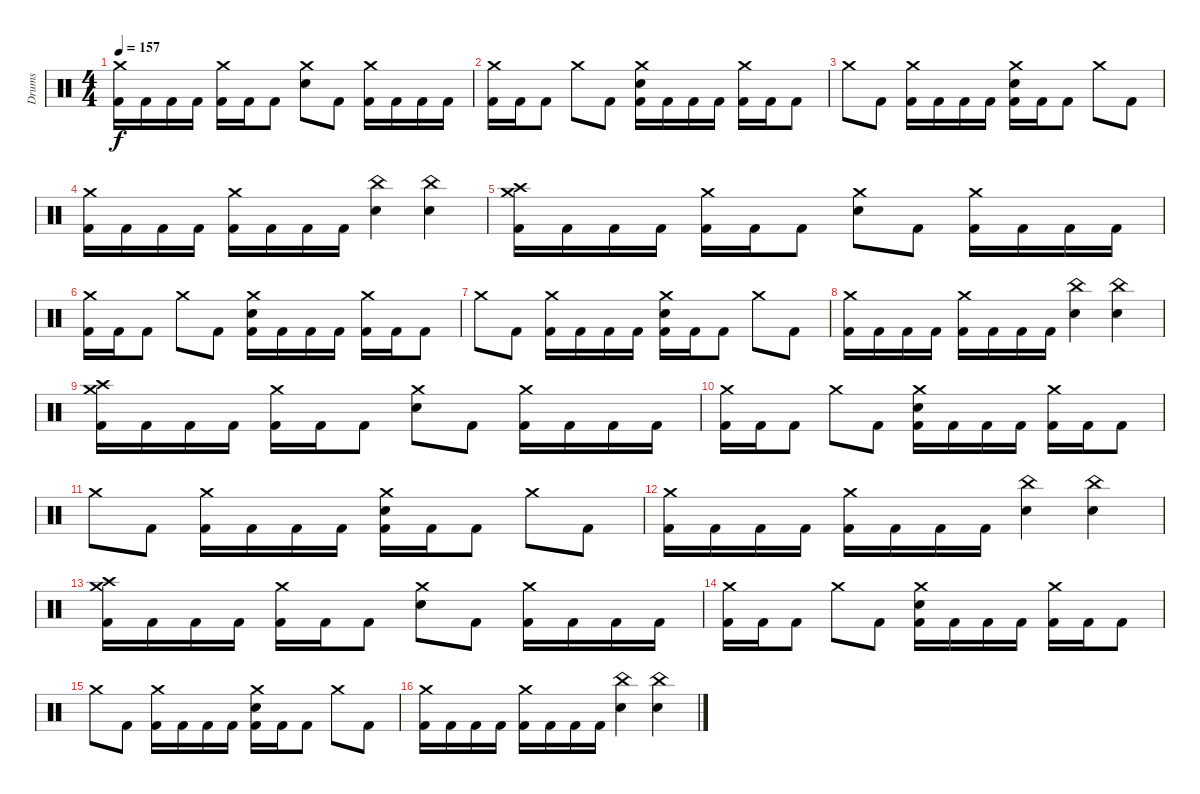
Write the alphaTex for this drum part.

\track ("Drums" "Drums") {instrument percussion}
\staff {score}
\articulation defaults
\ts (4 4)
\tempo 157
\clef neutral
\ks c
("Crash medium (hit)" "Kick (hit) 2").16{dy f} "Kick (hit) 2".16 "Kick (hit) 2".16 "Kick (hit) 2".16 ("Crash medium (hit)" "Kick (hit) 2").16 "Kick (hit) 2".16 "Kick (hit) 2".8 ("Crash medium (hit)" "Electric Snare (hit)").8 "Kick (hit) 2".8 ("Crash medium (hit)" "Kick (hit) 2").16 "Kick (hit) 2".16 "Kick (hit) 2".16 "Kick (hit) 2".16 |
("Crash medium (hit)" "Kick (hit) 2").16 "Kick (hit) 2".16 "Kick (hit) 2".8 "Crash medium (hit)".8 "Kick (hit) 2".8 ("Crash medium (hit)" "Electric Snare (hit)" "Kick (hit) 2").16 "Kick (hit) 2".16 "Kick (hit) 2".16 "Kick (hit) 2".16 ("Crash medium (hit)" "Kick (hit) 2").16 "Kick (hit) 2".16 "Kick (hit) 2".8 |
"Crash medium (hit)".8 "Kick (hit) 2".8 ("Crash medium (hit)" "Kick (hit) 2").16 "Kick (hit) 2".16 "Kick (hit) 2".16 "Kick (hit) 2".16 ("Crash medium (hit)" "Electric Snare (hit)" "Kick (hit) 2").16 "Kick (hit) 2".16 "Kick (hit) 2".8 "Crash medium (hit)".8 "Kick (hit) 2".8 |
("Crash medium (hit)" "Kick (hit) 2").16 "Kick (hit) 2".16 "Kick (hit) 2".16 "Kick (hit) 2".16 ("Crash medium (hit)" "Kick (hit) 2").16 "Kick (hit) 2".16 "Kick (hit) 2".16 "Kick (hit) 2".16 ("China (hit)" "Electric Snare (hit)").4 ("China (hit)" "Electric Snare (hit)").4 |
("Crash medium (hit)" "Crash high (hit)" "Kick (hit) 2").16 "Kick (hit) 2".16 "Kick (hit) 2".16 "Kick (hit) 2".16 ("Crash medium (hit)" "Kick (hit) 2").16 "Kick (hit) 2".16 "Kick (hit) 2".8 ("Crash medium (hit)" "Electric Snare (hit)").8 "Kick (hit) 2".8 ("Crash medium (hit)" "Kick (hit) 2").16 "Kick (hit) 2".16 "Kick (hit) 2".16 "Kick (hit) 2".16 |
("Crash medium (hit)" "Kick (hit) 2").16 "Kick (hit) 2".16 "Kick (hit) 2".8 "Crash medium (hit)".8 "Kick (hit) 2".8 ("Crash medium (hit)" "Electric Snare (hit)" "Kick (hit) 2").16 "Kick (hit) 2".16 "Kick (hit) 2".16 "Kick (hit) 2".16 ("Crash medium (hit)" "Kick (hit) 2").16 "Kick (hit) 2".16 "Kick (hit) 2".8 |
"Crash medium (hit)".8 "Kick (hit) 2".8 ("Crash medium (hit)" "Kick (hit) 2").16 "Kick (hit) 2".16 "Kick (hit) 2".16 "Kick (hit) 2".16 ("Crash medium (hit)" "Electric Snare (hit)" "Kick (hit) 2").16 "Kick (hit) 2".16 "Kick (hit) 2".8 "Crash medium (hit)".8 "Kick (hit) 2".8 |
("Crash medium (hit)" "Kick (hit) 2").16 "Kick (hit) 2".16 "Kick (hit) 2".16 "Kick (hit) 2".16 ("Crash medium (hit)" "Kick (hit) 2").16 "Kick (hit) 2".16 "Kick (hit) 2".16 "Kick (hit) 2".16 ("China (hit)" "Electric Snare (hit)").4 ("China (hit)" "Electric Snare (hit)").4 |
("Crash medium (hit)" "Crash high (hit)" "Kick (hit) 2").16 "Kick (hit) 2".16 "Kick (hit) 2".16 "Kick (hit) 2".16 ("Crash medium (hit)" "Kick (hit) 2").16 "Kick (hit) 2".16 "Kick (hit) 2".8 ("Crash medium (hit)" "Electric Snare (hit)").8 "Kick (hit) 2".8 ("Crash medium (hit)" "Kick (hit) 2").16 "Kick (hit) 2".16 "Kick (hit) 2".16 "Kick (hit) 2".16 |
("Crash medium (hit)" "Kick (hit) 2").16 "Kick (hit) 2".16 "Kick (hit) 2".8 "Crash medium (hit)".8 "Kick (hit) 2".8 ("Crash medium (hit)" "Electric Snare (hit)" "Kick (hit) 2").16 "Kick (hit) 2".16 "Kick (hit) 2".16 "Kick (hit) 2".16 ("Crash medium (hit)" "Kick (hit) 2").16 "Kick (hit) 2".16 "Kick (hit) 2".8 |
"Crash medium (hit)".8 "Kick (hit) 2".8 ("Crash medium (hit)" "Kick (hit) 2").16 "Kick (hit) 2".16 "Kick (hit) 2".16 "Kick (hit) 2".16 ("Crash medium (hit)" "Electric Snare (hit)" "Kick (hit) 2").16 "Kick (hit) 2".16 "Kick (hit) 2".8 "Crash medium (hit)".8 "Kick (hit) 2".8 |
("Crash medium (hit)" "Kick (hit) 2").16 "Kick (hit) 2".16 "Kick (hit) 2".16 "Kick (hit) 2".16 ("Crash medium (hit)" "Kick (hit) 2").16 "Kick (hit) 2".16 "Kick (hit) 2".16 "Kick (hit) 2".16 ("China (hit)" "Electric Snare (hit)").4 ("China (hit)" "Electric Snare (hit)").4 |
("Crash medium (hit)" "Crash high (hit)" "Kick (hit) 2").16 "Kick (hit) 2".16 "Kick (hit) 2".16 "Kick (hit) 2".16 ("Crash medium (hit)" "Kick (hit) 2").16 "Kick (hit) 2".16 "Kick (hit) 2".8 ("Crash medium (hit)" "Electric Snare (hit)").8 "Kick (hit) 2".8 ("Crash medium (hit)" "Kick (hit) 2").16 "Kick (hit) 2".16 "Kick (hit) 2".16 "Kick (hit) 2".16 |
("Crash medium (hit)" "Kick (hit) 2").16 "Kick (hit) 2".16 "Kick (hit) 2".8 "Crash medium (hit)".8 "Kick (hit) 2".8 ("Crash medium (hit)" "Electric Snare (hit)" "Kick (hit) 2").16 "Kick (hit) 2".16 "Kick (hit) 2".16 "Kick (hit) 2".16 ("Crash medium (hit)" "Kick (hit) 2").16 "Kick (hit) 2".16 "Kick (hit) 2".8 |
"Crash medium (hit)".8 "Kick (hit) 2".8 ("Crash medium (hit)" "Kick (hit) 2").16 "Kick (hit) 2".16 "Kick (hit) 2".16 "Kick (hit) 2".16 ("Crash medium (hit)" "Electric Snare (hit)" "Kick (hit) 2").16 "Kick (hit) 2".16 "Kick (hit) 2".8 "Crash medium (hit)".8 "Kick (hit) 2".8 |
("Crash medium (hit)" "Kick (hit) 2").16 "Kick (hit) 2".16 "Kick (hit) 2".16 "Kick (hit) 2".16 ("Crash medium (hit)" "Kick (hit) 2").16 "Kick (hit) 2".16 "Kick (hit) 2".16 "Kick (hit) 2".16 ("China (hit)" "Electric Snare (hit)").4 ("China (hit)" "Electric Snare (hit)").4
